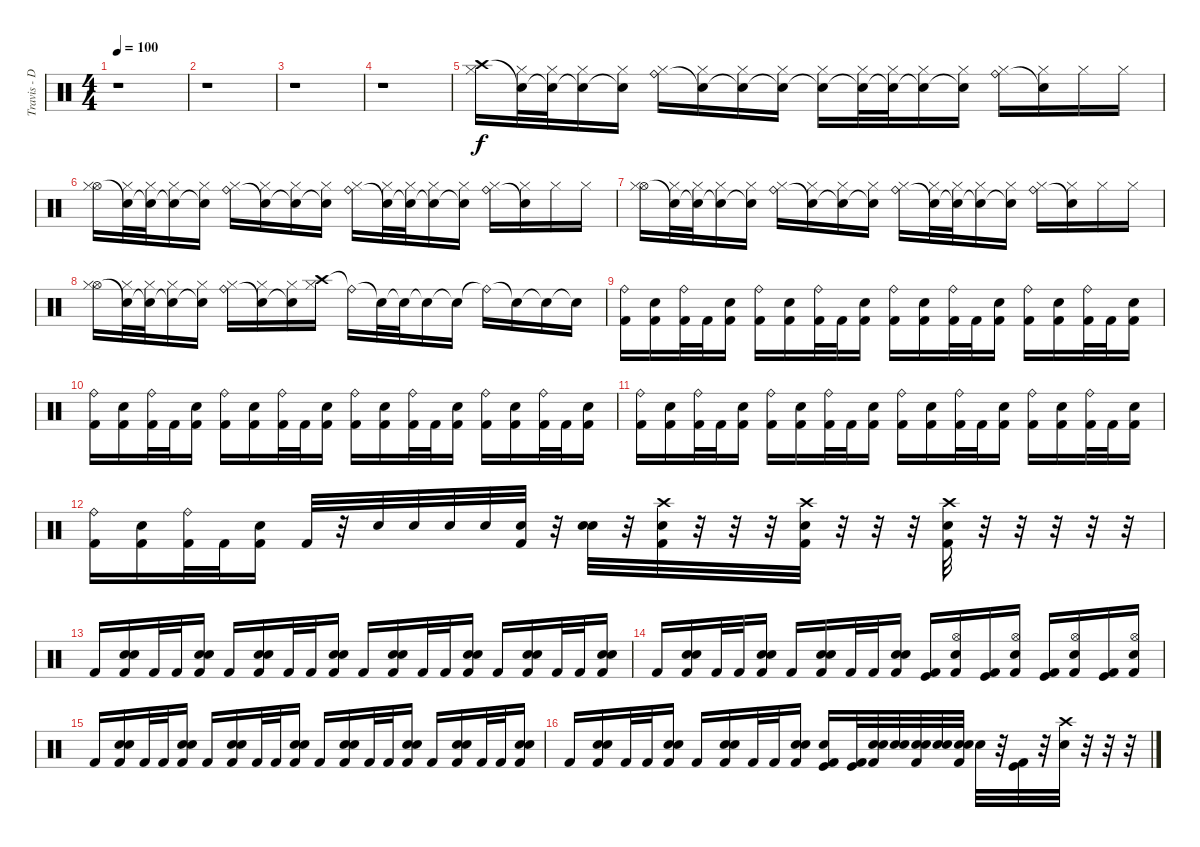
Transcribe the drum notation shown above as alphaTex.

\track ("Travis - Drums {Tabbed by Peter B.}" "Travis - D") {instrument percussion}
\staff {score}
\articulation defaults
\ts (4 4)
\tempo 100
\clef neutral
\ks c
r.1{dy f} |
r.1 |
r.1 |
r.1 |
("Crash high (hit)" "Hi-Hat (closed)").16 ("Snare (hit)"{t} "Hi-Hat (closed)").32 ("Snare (hit)"{t} "Hi-Hat (closed)").32 ("Snare (hit)"{t} "Hi-Hat (closed)").16 ("Snare (hit)"{t} "Hi-Hat (closed)").16 ("Ride (bell)" "Hi-Hat (closed)").16 ("Snare (hit)"{t} "Hi-Hat (closed)").16 ("Snare (hit)"{t} "Hi-Hat (closed)").16 ("Snare (hit)"{t} "Hi-Hat (closed)").16 ("Snare (hit)"{t} "Hi-Hat (closed)").16 ("Snare (hit)"{t} "Hi-Hat (closed)").32 ("Snare (hit)"{t} "Hi-Hat (closed)").32 ("Snare (hit)"{t} "Hi-Hat (closed)").16 ("Snare (hit)"{t} "Hi-Hat (closed)").16 ("Ride (bell)" "Hi-Hat (closed)").16 ("Snare (hit)"{t} "Hi-Hat (closed)").16 "Hi-Hat (closed)".16 "Hi-Hat (closed)".16 |
("Hi-Hat (open)" "Hi-Hat (closed)").16 ("Snare (hit)"{t} "Hi-Hat (closed)").32 ("Snare (hit)"{t} "Hi-Hat (closed)").32 ("Snare (hit)"{t} "Hi-Hat (closed)").16 ("Snare (hit)"{t} "Hi-Hat (closed)").16 ("Ride (bell)" "Hi-Hat (closed)").16 ("Snare (hit)"{t} "Hi-Hat (closed)").16 ("Snare (hit)"{t} "Hi-Hat (closed)").16 ("Snare (hit)"{t} "Hi-Hat (closed)").16 ("Ride (bell)" "Hi-Hat (closed)").16 ("Snare (hit)"{t} "Hi-Hat (closed)").32 ("Snare (hit)"{t} "Hi-Hat (closed)").32 ("Snare (hit)"{t} "Hi-Hat (closed)").16 ("Snare (hit)"{t} "Hi-Hat (closed)").16 ("Ride (bell)" "Hi-Hat (closed)").16 ("Snare (hit)"{t} "Hi-Hat (closed)").16 "Hi-Hat (closed)".16 "Hi-Hat (closed)".16 |
("Hi-Hat (open)" "Hi-Hat (closed)").16 ("Snare (hit)"{t} "Hi-Hat (closed)").32 ("Snare (hit)"{t} "Hi-Hat (closed)").32 ("Snare (hit)"{t} "Hi-Hat (closed)").16 ("Snare (hit)"{t} "Hi-Hat (closed)").16 ("Ride (bell)" "Hi-Hat (closed)").16 ("Snare (hit)"{t} "Hi-Hat (closed)").16 ("Snare (hit)"{t} "Hi-Hat (closed)").16 ("Snare (hit)"{t} "Hi-Hat (closed)").16 ("Ride (bell)" "Hi-Hat (closed)").16 ("Snare (hit)"{t} "Hi-Hat (closed)").32 ("Snare (hit)"{t} "Hi-Hat (closed)").32 ("Snare (hit)"{t} "Hi-Hat (closed)").16 ("Snare (hit)"{t} "Hi-Hat (closed)").16 ("Ride (bell)" "Hi-Hat (closed)").16 ("Snare (hit)"{t} "Hi-Hat (closed)").16 "Hi-Hat (closed)".16 "Hi-Hat (closed)".16 |
("Hi-Hat (open)" "Hi-Hat (closed)").16 ("Snare (hit)"{t} "Hi-Hat (closed)").32 ("Snare (hit)"{t} "Hi-Hat (closed)").32 ("Snare (hit)"{t} "Hi-Hat (closed)").16 ("Snare (hit)"{t} "Hi-Hat (closed)").16 ("Ride (bell)" "Hi-Hat (closed)").16 ("Snare (hit)"{t} "Hi-Hat (closed)").16 ("Snare (hit)"{t} "Hi-Hat (closed)").16 ("Crash high (hit)" "Hi-Hat (closed)").16 "Ride (bell)"{t}.16 "Snare (hit)"{t}.32 "Snare (hit)"{t}.32 "Snare (hit)"{t}.16 "Snare (hit)"{t}.16 "Ride (bell)"{t}.16 "Snare (hit)"{t}.16 "Snare (hit)"{t}.16 "Snare (hit)"{t}.16 |
("Ride (bell)" "Kick (hit) 2").16 ("Electric Snare (hit)" "Kick (hit) 2").16 ("Ride (bell)" "Kick (hit) 2").32 "Kick (hit) 2".32 ("Electric Snare (hit)" "Kick (hit) 2").16 ("Ride (bell)" "Kick (hit) 2").16 ("Electric Snare (hit)" "Kick (hit) 2").16 ("Ride (bell)" "Kick (hit) 2").32 "Kick (hit) 2".32 ("Electric Snare (hit)" "Kick (hit) 2").16 ("Ride (bell)" "Kick (hit) 2").16 ("Electric Snare (hit)" "Kick (hit) 2").16 ("Ride (bell)" "Kick (hit) 2").32 "Kick (hit) 2".32 ("Electric Snare (hit)" "Kick (hit) 2").16 ("Ride (bell)" "Kick (hit) 2").16 ("Electric Snare (hit)" "Kick (hit) 2").16 ("Ride (bell)" "Kick (hit) 2").32 "Kick (hit) 2".32 ("Electric Snare (hit)" "Kick (hit) 2").16 |
("Ride (bell)" "Kick (hit) 2").16 ("Electric Snare (hit)" "Kick (hit) 2").16 ("Ride (bell)" "Kick (hit) 2").32 "Kick (hit) 2".32 ("Electric Snare (hit)" "Kick (hit) 2").16 ("Ride (bell)" "Kick (hit) 2").16 ("Electric Snare (hit)" "Kick (hit) 2").16 ("Ride (bell)" "Kick (hit) 2").32 "Kick (hit) 2".32 ("Electric Snare (hit)" "Kick (hit) 2").16 ("Ride (bell)" "Kick (hit) 2").16 ("Electric Snare (hit)" "Kick (hit) 2").16 ("Ride (bell)" "Kick (hit) 2").32 "Kick (hit) 2".32 ("Electric Snare (hit)" "Kick (hit) 2").16 ("Ride (bell)" "Kick (hit) 2").16 ("Electric Snare (hit)" "Kick (hit) 2").16 ("Ride (bell)" "Kick (hit) 2").32 "Kick (hit) 2".32 ("Electric Snare (hit)" "Kick (hit) 2").16 |
("Ride (bell)" "Kick (hit) 2").16 ("Electric Snare (hit)" "Kick (hit) 2").16 ("Ride (bell)" "Kick (hit) 2").32 "Kick (hit) 2".32 ("Electric Snare (hit)" "Kick (hit) 2").16 ("Ride (bell)" "Kick (hit) 2").16 ("Electric Snare (hit)" "Kick (hit) 2").16 ("Ride (bell)" "Kick (hit) 2").32 "Kick (hit) 2".32 ("Electric Snare (hit)" "Kick (hit) 2").16 ("Ride (bell)" "Kick (hit) 2").16 ("Electric Snare (hit)" "Kick (hit) 2").16 ("Ride (bell)" "Kick (hit) 2").32 "Kick (hit) 2".32 ("Electric Snare (hit)" "Kick (hit) 2").16 ("Ride (bell)" "Kick (hit) 2").16 ("Electric Snare (hit)" "Kick (hit) 2").16 ("Ride (bell)" "Kick (hit) 2").32 "Kick (hit) 2".32 ("Electric Snare (hit)" "Kick (hit) 2").16 |
("Ride (bell)" "Kick (hit) 2").16 ("Electric Snare (hit)" "Kick (hit) 2").16 ("Ride (bell)" "Kick (hit) 2").32 "Kick (hit) 2".32 ("Electric Snare (hit)" "Kick (hit) 2").16 "Kick (hit) 2".32 r.32 "Electric Snare (hit)".32 "Electric Snare (hit)".32 "Electric Snare (hit)".32 "Electric Snare (hit)".32 ("Electric Snare (hit)" "Kick (hit) 2").32 r.32 ("Electric Snare (hit)" "Electric Snare (hit)").32 r.32 ("Crash high (hit)" "Electric Snare (hit)" "Kick (hit) 2").32 r.32 r.32 r.32 ("Crash high (hit)" "Electric Snare (hit)" "Kick (hit) 2").32 r.32 r.32 r.32 ("Crash high (hit)" "Electric Snare (hit)" "Kick (hit) 2").32 r.32 r.32 r.32 r.32 r.32 |
"Kick (hit) 2".16 ("Electric Snare (hit)" "Snare (hit) 2" "Kick (hit) 2").16 "Kick (hit) 2".32 "Kick (hit) 2".32 ("Electric Snare (hit)" "Snare (hit) 2" "Kick (hit) 2").16 "Kick (hit) 2".16 ("Electric Snare (hit)" "Snare (hit) 2" "Kick (hit) 2").16 "Kick (hit) 2".32 "Kick (hit) 2".32 ("Electric Snare (hit)" "Snare (hit) 2" "Kick (hit) 2").16 "Kick (hit) 2".16 ("Electric Snare (hit)" "Snare (hit) 2" "Kick (hit) 2").16 "Kick (hit) 2".32 "Kick (hit) 2".32 ("Electric Snare (hit)" "Snare (hit) 2" "Kick (hit) 2").16 "Kick (hit) 2".16 ("Electric Snare (hit)" "Snare (hit) 2" "Kick (hit) 2").16 "Kick (hit) 2".32 "Kick (hit) 2".32 ("Electric Snare (hit)" "Snare (hit) 2" "Kick (hit) 2").16 |
"Kick (hit) 2".16 ("Electric Snare (hit)" "Snare (hit) 2" "Kick (hit) 2").16 "Kick (hit) 2".32 "Kick (hit) 2".32 ("Electric Snare (hit)" "Snare (hit) 2" "Kick (hit) 2").16 "Kick (hit) 2".16 ("Electric Snare (hit)" "Snare (hit) 2" "Kick (hit) 2").16 "Kick (hit) 2".32 "Kick (hit) 2".32 ("Electric Snare (hit)" "Snare (hit) 2" "Kick (hit) 2").16 ("Kick (hit)" "Kick (hit) 2").16 ("Hi-Hat (open)" "Snare (hit) 2" "Kick (hit) 2").16 ("Kick (hit)" "Kick (hit) 2").16 ("Hi-Hat (open)" "Snare (hit) 2" "Kick (hit) 2").16 ("Kick (hit)" "Kick (hit) 2").16 ("Hi-Hat (open)" "Snare (hit) 2" "Kick (hit) 2").16 ("Kick (hit)" "Kick (hit) 2").16 ("Hi-Hat (open)" "Snare (hit) 2" "Kick (hit) 2").16 |
"Kick (hit) 2".16 ("Electric Snare (hit)" "Snare (hit) 2" "Kick (hit) 2").16 "Kick (hit) 2".32 "Kick (hit) 2".32 ("Electric Snare (hit)" "Snare (hit) 2" "Kick (hit) 2").16 "Kick (hit) 2".16 ("Electric Snare (hit)" "Snare (hit) 2" "Kick (hit) 2").16 "Kick (hit) 2".32 "Kick (hit) 2".32 ("Electric Snare (hit)" "Snare (hit) 2" "Kick (hit) 2").16 "Kick (hit) 2".16 ("Electric Snare (hit)" "Snare (hit) 2" "Kick (hit) 2").16 "Kick (hit) 2".32 "Kick (hit) 2".32 ("Electric Snare (hit)" "Snare (hit) 2" "Kick (hit) 2").16 "Kick (hit) 2".16 ("Electric Snare (hit)" "Snare (hit) 2" "Kick (hit) 2").16 "Kick (hit) 2".32 "Kick (hit) 2".32 ("Electric Snare (hit)" "Snare (hit) 2" "Kick (hit) 2").16 |
"Kick (hit) 2".16 ("Electric Snare (hit)" "Snare (hit) 2" "Kick (hit) 2").16 "Kick (hit) 2".32 "Kick (hit) 2".32 ("Electric Snare (hit)" "Snare (hit) 2" "Kick (hit) 2").16 "Kick (hit) 2".16 ("Electric Snare (hit)" "Snare (hit) 2" "Kick (hit) 2").16 "Kick (hit) 2".32 "Kick (hit) 2".32 ("Electric Snare (hit)" "Snare (hit) 2" "Kick (hit) 2").16 ("Electric Snare (hit)" "Kick (hit)" "Kick (hit) 2").16 ("Kick (hit)" "Kick (hit) 2").32 ("Snare (hit) 2" "Electric Snare (hit)" "Kick (hit) 2").32 ("Snare (hit) 2" "Electric Snare (hit)").32 ("Snare (hit) 2" "Electric Snare (hit)" "Kick (hit) 2").32 ("Snare (hit) 2" "Electric Snare (hit)").32 ("Snare (hit) 2" "Electric Snare (hit)" "Kick (hit) 2").32 "Electric Snare (hit)".32 r.32 ("Kick (hit) 2" "Kick (hit)").32 r.32 ("Crash high (hit)" "Electric Snare (hit)").32 r.32 r.32 r.32
